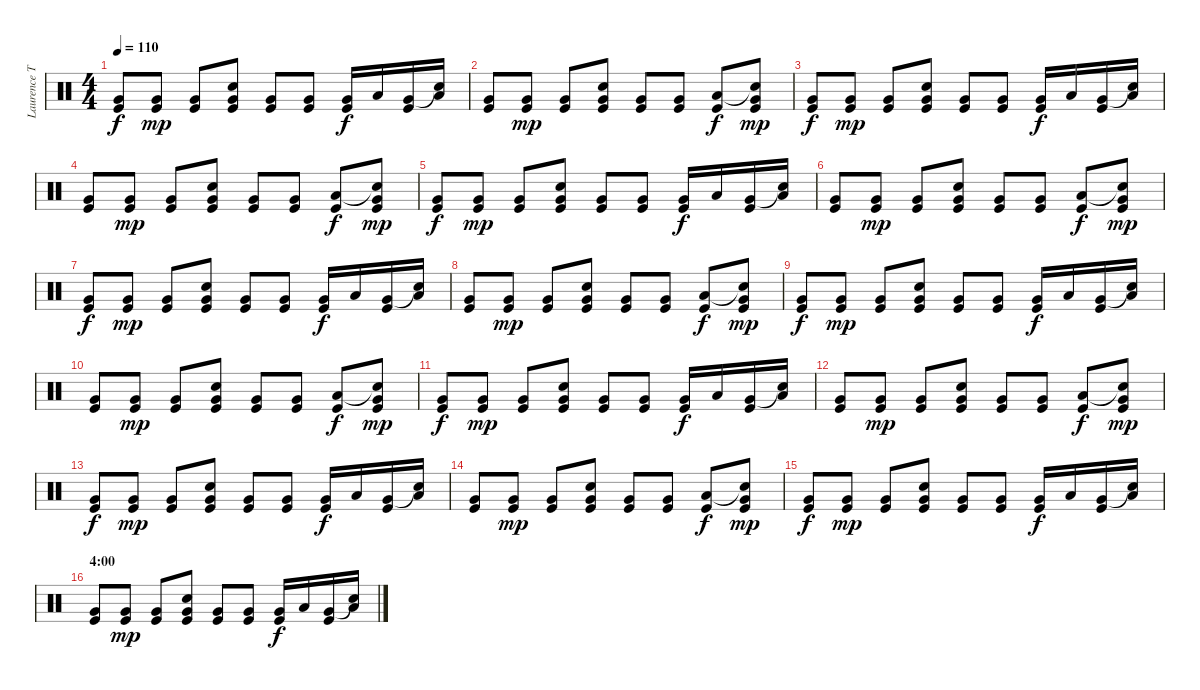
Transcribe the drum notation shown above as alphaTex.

\track ("Laurence Tolhurst (drums)" "Laurence T") {instrument percussion}
\staff {score}
\articulation defaults
\ts (4 4)
\tempo 110
\clef neutral
\ks c
("Very Low Tom (hit)" "Kick (hit)").8{dy f} ("Very Low Tom (hit)" "Kick (hit)").8{dy mp} ("Very Low Tom (hit)" "Kick (hit)").8 ("Snare (hit) 2" "Very Low Tom (hit)" "Kick (hit)").8 ("Very Low Tom (hit)" "Kick (hit)").8 ("Very Low Tom (hit)" "Kick (hit)").8 ("Very Low Tom (hit)" "Kick (hit)").16{dy f} "Low Tom (hit)".16 ("Very Low Tom (hit)" "Kick (hit)").16 ("Snare (hit)"{t} "Low Tom (hit)").16 |
("Very Low Tom (hit)" "Kick (hit)").8 ("Very Low Tom (hit)" "Kick (hit)").8{dy mp} ("Very Low Tom (hit)" "Kick (hit)").8 ("Snare (hit) 2" "Very Low Tom (hit)" "Kick (hit)").8 ("Very Low Tom (hit)" "Kick (hit)").8 ("Very Low Tom (hit)" "Kick (hit)").8 ("Low Tom (hit)" "Kick (hit)").8{dy f} ("Snare (hit)"{t} "Very Low Tom (hit)" "Kick (hit)").8{dy mp} |
("Very Low Tom (hit)" "Kick (hit)").8{dy f} ("Very Low Tom (hit)" "Kick (hit)").8{dy mp} ("Very Low Tom (hit)" "Kick (hit)").8 ("Snare (hit) 2" "Very Low Tom (hit)" "Kick (hit)").8 ("Very Low Tom (hit)" "Kick (hit)").8 ("Very Low Tom (hit)" "Kick (hit)").8 ("Very Low Tom (hit)" "Kick (hit)").16{dy f} "Low Tom (hit)".16 ("Very Low Tom (hit)" "Kick (hit)").16 ("Snare (hit)"{t} "Low Tom (hit)").16 |
("Very Low Tom (hit)" "Kick (hit)").8 ("Very Low Tom (hit)" "Kick (hit)").8{dy mp} ("Very Low Tom (hit)" "Kick (hit)").8 ("Snare (hit) 2" "Very Low Tom (hit)" "Kick (hit)").8 ("Very Low Tom (hit)" "Kick (hit)").8 ("Very Low Tom (hit)" "Kick (hit)").8 ("Low Tom (hit)" "Kick (hit)").8{dy f} ("Snare (hit)"{t} "Very Low Tom (hit)" "Kick (hit)").8{dy mp} |
("Very Low Tom (hit)" "Kick (hit)").8{dy f} ("Very Low Tom (hit)" "Kick (hit)").8{dy mp} ("Very Low Tom (hit)" "Kick (hit)").8 ("Snare (hit) 2" "Very Low Tom (hit)" "Kick (hit)").8 ("Very Low Tom (hit)" "Kick (hit)").8 ("Very Low Tom (hit)" "Kick (hit)").8 ("Very Low Tom (hit)" "Kick (hit)").16{dy f} "Low Tom (hit)".16 ("Very Low Tom (hit)" "Kick (hit)").16 ("Snare (hit)"{t} "Low Tom (hit)").16 |
("Very Low Tom (hit)" "Kick (hit)").8 ("Very Low Tom (hit)" "Kick (hit)").8{dy mp} ("Very Low Tom (hit)" "Kick (hit)").8 ("Snare (hit) 2" "Very Low Tom (hit)" "Kick (hit)").8 ("Very Low Tom (hit)" "Kick (hit)").8 ("Very Low Tom (hit)" "Kick (hit)").8 ("Low Tom (hit)" "Kick (hit)").8{dy f} ("Snare (hit)"{t} "Very Low Tom (hit)" "Kick (hit)").8{dy mp} |
("Very Low Tom (hit)" "Kick (hit)").8{dy f} ("Very Low Tom (hit)" "Kick (hit)").8{dy mp} ("Very Low Tom (hit)" "Kick (hit)").8 ("Snare (hit) 2" "Very Low Tom (hit)" "Kick (hit)").8 ("Very Low Tom (hit)" "Kick (hit)").8 ("Very Low Tom (hit)" "Kick (hit)").8 ("Very Low Tom (hit)" "Kick (hit)").16{dy f} "Low Tom (hit)".16 ("Very Low Tom (hit)" "Kick (hit)").16 ("Snare (hit)"{t} "Low Tom (hit)").16 |
("Very Low Tom (hit)" "Kick (hit)").8 ("Very Low Tom (hit)" "Kick (hit)").8{dy mp} ("Very Low Tom (hit)" "Kick (hit)").8 ("Snare (hit) 2" "Very Low Tom (hit)" "Kick (hit)").8 ("Very Low Tom (hit)" "Kick (hit)").8 ("Very Low Tom (hit)" "Kick (hit)").8 ("Low Tom (hit)" "Kick (hit)").8{dy f} ("Snare (hit)"{t} "Very Low Tom (hit)" "Kick (hit)").8{dy mp} |
("Very Low Tom (hit)" "Kick (hit)").8{dy f} ("Very Low Tom (hit)" "Kick (hit)").8{dy mp} ("Very Low Tom (hit)" "Kick (hit)").8 ("Snare (hit) 2" "Very Low Tom (hit)" "Kick (hit)").8 ("Very Low Tom (hit)" "Kick (hit)").8 ("Very Low Tom (hit)" "Kick (hit)").8 ("Very Low Tom (hit)" "Kick (hit)").16{dy f} "Low Tom (hit)".16 ("Very Low Tom (hit)" "Kick (hit)").16 ("Snare (hit)"{t} "Low Tom (hit)").16 |
("Very Low Tom (hit)" "Kick (hit)").8 ("Very Low Tom (hit)" "Kick (hit)").8{dy mp} ("Very Low Tom (hit)" "Kick (hit)").8 ("Snare (hit) 2" "Very Low Tom (hit)" "Kick (hit)").8 ("Very Low Tom (hit)" "Kick (hit)").8 ("Very Low Tom (hit)" "Kick (hit)").8 ("Low Tom (hit)" "Kick (hit)").8{dy f} ("Snare (hit)"{t} "Very Low Tom (hit)" "Kick (hit)").8{dy mp} |
("Very Low Tom (hit)" "Kick (hit)").8{dy f} ("Very Low Tom (hit)" "Kick (hit)").8{dy mp} ("Very Low Tom (hit)" "Kick (hit)").8 ("Snare (hit) 2" "Very Low Tom (hit)" "Kick (hit)").8 ("Very Low Tom (hit)" "Kick (hit)").8 ("Very Low Tom (hit)" "Kick (hit)").8 ("Very Low Tom (hit)" "Kick (hit)").16{dy f} "Low Tom (hit)".16 ("Very Low Tom (hit)" "Kick (hit)").16 ("Snare (hit)"{t} "Low Tom (hit)").16 |
("Very Low Tom (hit)" "Kick (hit)").8 ("Very Low Tom (hit)" "Kick (hit)").8{dy mp} ("Very Low Tom (hit)" "Kick (hit)").8 ("Snare (hit) 2" "Very Low Tom (hit)" "Kick (hit)").8 ("Very Low Tom (hit)" "Kick (hit)").8 ("Very Low Tom (hit)" "Kick (hit)").8 ("Low Tom (hit)" "Kick (hit)").8{dy f} ("Snare (hit)"{t} "Very Low Tom (hit)" "Kick (hit)").8{dy mp} |
("Very Low Tom (hit)" "Kick (hit)").8{dy f} ("Very Low Tom (hit)" "Kick (hit)").8{dy mp} ("Very Low Tom (hit)" "Kick (hit)").8 ("Snare (hit) 2" "Very Low Tom (hit)" "Kick (hit)").8 ("Very Low Tom (hit)" "Kick (hit)").8 ("Very Low Tom (hit)" "Kick (hit)").8 ("Very Low Tom (hit)" "Kick (hit)").16{dy f} "Low Tom (hit)".16 ("Very Low Tom (hit)" "Kick (hit)").16 ("Snare (hit)"{t} "Low Tom (hit)").16 |
("Very Low Tom (hit)" "Kick (hit)").8 ("Very Low Tom (hit)" "Kick (hit)").8{dy mp} ("Very Low Tom (hit)" "Kick (hit)").8 ("Snare (hit) 2" "Very Low Tom (hit)" "Kick (hit)").8 ("Very Low Tom (hit)" "Kick (hit)").8 ("Very Low Tom (hit)" "Kick (hit)").8 ("Low Tom (hit)" "Kick (hit)").8{dy f} ("Snare (hit)"{t} "Very Low Tom (hit)" "Kick (hit)").8{dy mp} |
("Very Low Tom (hit)" "Kick (hit)").8{dy f} ("Very Low Tom (hit)" "Kick (hit)").8{dy mp} ("Very Low Tom (hit)" "Kick (hit)").8 ("Snare (hit) 2" "Very Low Tom (hit)" "Kick (hit)").8 ("Very Low Tom (hit)" "Kick (hit)").8 ("Very Low Tom (hit)" "Kick (hit)").8 ("Very Low Tom (hit)" "Kick (hit)").16{dy f} "Low Tom (hit)".16 ("Very Low Tom (hit)" "Kick (hit)").16 ("Snare (hit)"{t} "Low Tom (hit)").16 |
\section ("" "4:00")
("Very Low Tom (hit)" "Kick (hit)").8 ("Very Low Tom (hit)" "Kick (hit)").8{dy mp} ("Very Low Tom (hit)" "Kick (hit)").8 ("Snare (hit) 2" "Very Low Tom (hit)" "Kick (hit)").8 ("Very Low Tom (hit)" "Kick (hit)").8 ("Very Low Tom (hit)" "Kick (hit)").8 ("Very Low Tom (hit)" "Kick (hit)").16{dy f} "Low Tom (hit)".16 ("Very Low Tom (hit)" "Kick (hit)").16 ("Snare (hit)"{t} "Low Tom (hit)").16
